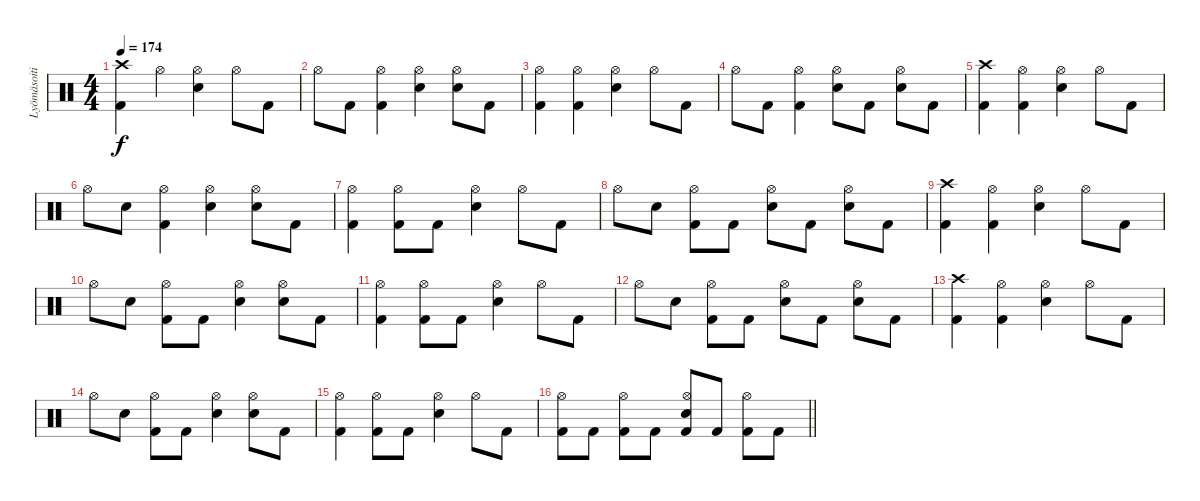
\track ("Lyömäsoitin" "Lyömäsoiti") {instrument percussion}
\staff {score}
\articulation defaults
\ts (4 4)
\section ("" "")
\tempo 174
\clef neutral
\ks c
("Crash high (hit)" "Kick (hit) 2").4{dy f} "Hi-Hat (open)".4 ("Hi-Hat (open)" "Electric Snare (hit)").4 "Hi-Hat (open)".8 "Kick (hit) 2".8 |
"Hi-Hat (open)".8 "Kick (hit) 2".8 ("Hi-Hat (open)" "Kick (hit) 2").4 ("Hi-Hat (open)" "Electric Snare (hit)").4 ("Hi-Hat (open)" "Electric Snare (hit)").8 "Kick (hit) 2".8 |
("Hi-Hat (open)" "Kick (hit) 2").4 ("Hi-Hat (open)" "Kick (hit) 2").4 ("Hi-Hat (open)" "Electric Snare (hit)").4 "Hi-Hat (open)".8 "Kick (hit) 2".8 |
"Hi-Hat (open)".8 "Kick (hit) 2".8 ("Hi-Hat (open)" "Kick (hit) 2").4 ("Hi-Hat (open)" "Electric Snare (hit)").8 "Kick (hit) 2".8 ("Hi-Hat (open)" "Electric Snare (hit)").8 "Kick (hit) 2".8 |
("Crash high (hit)" "Kick (hit) 2").4 ("Hi-Hat (open)" "Kick (hit) 2").4 ("Hi-Hat (open)" "Electric Snare (hit)").4 "Hi-Hat (open)".8 "Kick (hit) 2".8 |
"Hi-Hat (open)".8 "Electric Snare (hit)".8 ("Hi-Hat (open)" "Kick (hit) 2").4 ("Hi-Hat (open)" "Electric Snare (hit)").4 ("Hi-Hat (open)" "Electric Snare (hit)").8 "Kick (hit) 2".8 |
("Hi-Hat (open)" "Kick (hit) 2").4 ("Hi-Hat (open)" "Kick (hit) 2").8 "Kick (hit) 2".8 ("Hi-Hat (open)" "Electric Snare (hit)").4 "Hi-Hat (open)".8 "Kick (hit) 2".8 |
"Hi-Hat (open)".8 "Electric Snare (hit)".8 ("Hi-Hat (open)" "Kick (hit) 2").8 "Kick (hit) 2".8 ("Hi-Hat (open)" "Electric Snare (hit)").8 "Kick (hit) 2".8 ("Hi-Hat (open)" "Electric Snare (hit)").8 "Kick (hit) 2".8 |
("Crash high (hit)" "Kick (hit) 2").4 ("Hi-Hat (open)" "Kick (hit) 2").4 ("Hi-Hat (open)" "Electric Snare (hit)").4 "Hi-Hat (open)".8 "Kick (hit) 2".8 |
"Hi-Hat (open)".8 "Electric Snare (hit)".8 ("Hi-Hat (open)" "Kick (hit) 2").8 "Kick (hit) 2".8 ("Hi-Hat (open)" "Electric Snare (hit)").4 ("Hi-Hat (open)" "Electric Snare (hit)").8 "Kick (hit) 2".8 |
("Hi-Hat (open)" "Kick (hit) 2").4 ("Hi-Hat (open)" "Kick (hit) 2").8 "Kick (hit) 2".8 ("Hi-Hat (open)" "Electric Snare (hit)").4 "Hi-Hat (open)".8 "Kick (hit) 2".8 |
"Hi-Hat (open)".8 "Electric Snare (hit)".8 ("Hi-Hat (open)" "Kick (hit) 2").8 "Kick (hit) 2".8 ("Hi-Hat (open)" "Electric Snare (hit)").8 "Kick (hit) 2".8 ("Hi-Hat (open)" "Electric Snare (hit)").8 "Kick (hit) 2".8 |
("Crash high (hit)" "Kick (hit) 2").4 ("Hi-Hat (open)" "Kick (hit) 2").4 ("Hi-Hat (open)" "Electric Snare (hit)").4 "Hi-Hat (open)".8 "Kick (hit) 2".8 |
"Hi-Hat (open)".8 "Electric Snare (hit)".8 ("Hi-Hat (open)" "Kick (hit) 2").8 "Kick (hit) 2".8 ("Hi-Hat (open)" "Electric Snare (hit)").4 ("Hi-Hat (open)" "Electric Snare (hit)").8 "Kick (hit) 2".8 |
("Hi-Hat (open)" "Kick (hit) 2").4 ("Hi-Hat (open)" "Kick (hit) 2").8 "Kick (hit) 2".8 ("Hi-Hat (open)" "Electric Snare (hit)").4 "Hi-Hat (open)".8 "Kick (hit) 2".8 |
\barLineRight lightlight
("Hi-Hat (open)" "Kick (hit) 2").8 "Kick (hit) 2".8 ("Hi-Hat (open)" "Kick (hit) 2").8 "Kick (hit) 2".8 ("Hi-Hat (open)" "Electric Snare (hit)" "Kick (hit) 2").8 "Kick (hit) 2".8 ("Hi-Hat (open)" "Kick (hit) 2").8 "Kick (hit) 2".8
